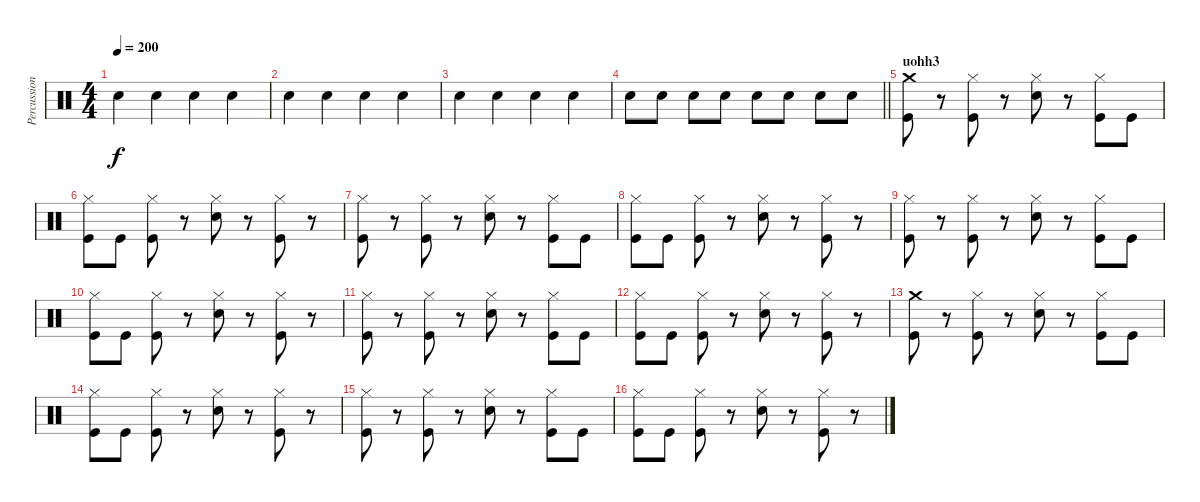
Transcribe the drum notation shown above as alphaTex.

\track ("Percussion" "Percussion") {instrument percussion}
\staff {score}
\articulation defaults
\ts (4 4)
\tempo 200
\clef neutral
\ks c "Snare (hit) 2".4{dy f} "Snare (hit) 2".4 "Snare (hit) 2".4 "Snare (hit) 2".4
|
"Snare (hit) 2".4 "Snare (hit) 2".4 "Snare (hit) 2".4 "Snare (hit) 2".4 |
"Snare (hit) 2".4 "Snare (hit) 2".4 "Snare (hit) 2".4 "Snare (hit) 2".4 |
\barLineRight lightlight "Snare (hit) 2".8 "Snare (hit) 2".8 "Snare (hit) 2".8 "Snare (hit) 2".8 "Snare (hit) 2".8 "Snare (hit) 2".8 "Snare (hit) 2".8 "Snare (hit) 2".8
|
\section ("" "uohh3")
("Crash medium (hit)" "Kick (hit)").8 r.8 ("Hi-Hat (closed)" "Kick (hit)").8 r.8 ("Hi-Hat (closed)" "Snare (hit) 2").8 r.8 ("Hi-Hat (closed)" "Kick (hit)").8 "Kick (hit)".8 |
("Hi-Hat (closed)" "Kick (hit)").8 "Kick (hit)".8 ("Hi-Hat (closed)" "Kick (hit)").8 r.8 ("Hi-Hat (closed)" "Snare (hit) 2").8 r.8 ("Hi-Hat (closed)" "Kick (hit)").8 r.8 |
("Hi-Hat (closed)" "Kick (hit)").8 r.8 ("Hi-Hat (closed)" "Kick (hit)").8 r.8 ("Hi-Hat (closed)" "Snare (hit) 2").8 r.8 ("Hi-Hat (closed)" "Kick (hit)").8 "Kick (hit)".8 |
("Hi-Hat (closed)" "Kick (hit)").8 "Kick (hit)".8 ("Hi-Hat (closed)" "Kick (hit)").8 r.8 ("Hi-Hat (closed)" "Snare (hit) 2").8 r.8 ("Hi-Hat (closed)" "Kick (hit)").8 r.8 |
("Hi-Hat (closed)" "Kick (hit)").8 r.8 ("Hi-Hat (closed)" "Kick (hit)").8 r.8 ("Hi-Hat (closed)" "Snare (hit) 2").8 r.8 ("Hi-Hat (closed)" "Kick (hit)").8 "Kick (hit)".8 |
("Hi-Hat (closed)" "Kick (hit)").8 "Kick (hit)".8 ("Hi-Hat (closed)" "Kick (hit)").8 r.8 ("Hi-Hat (closed)" "Snare (hit) 2").8 r.8 ("Hi-Hat (closed)" "Kick (hit)").8 r.8 |
("Hi-Hat (closed)" "Kick (hit)").8 r.8 ("Hi-Hat (closed)" "Kick (hit)").8 r.8 ("Hi-Hat (closed)" "Snare (hit) 2").8 r.8 ("Hi-Hat (closed)" "Kick (hit)").8 "Kick (hit)".8 |
("Hi-Hat (closed)" "Kick (hit)").8 "Kick (hit)".8 ("Hi-Hat (closed)" "Kick (hit)").8 r.8 ("Hi-Hat (closed)" "Snare (hit) 2").8 r.8 ("Hi-Hat (closed)" "Kick (hit)").8 r.8 |
("Crash medium (hit)" "Kick (hit)").8 r.8 ("Hi-Hat (closed)" "Kick (hit)").8 r.8 ("Hi-Hat (closed)" "Snare (hit) 2").8 r.8 ("Hi-Hat (closed)" "Kick (hit)").8 "Kick (hit)".8 |
("Hi-Hat (closed)" "Kick (hit)").8 "Kick (hit)".8 ("Hi-Hat (closed)" "Kick (hit)").8 r.8 ("Hi-Hat (closed)" "Snare (hit) 2").8 r.8 ("Hi-Hat (closed)" "Kick (hit)").8 r.8 |
("Hi-Hat (closed)" "Kick (hit)").8 r.8 ("Hi-Hat (closed)" "Kick (hit)").8 r.8 ("Hi-Hat (closed)" "Snare (hit) 2").8 r.8 ("Hi-Hat (closed)" "Kick (hit)").8 "Kick (hit)".8 |
("Hi-Hat (closed)" "Kick (hit)").8 "Kick (hit)".8 ("Hi-Hat (closed)" "Kick (hit)").8 r.8 ("Hi-Hat (closed)" "Snare (hit) 2").8 r.8 ("Hi-Hat (closed)" "Kick (hit)").8 r.8
